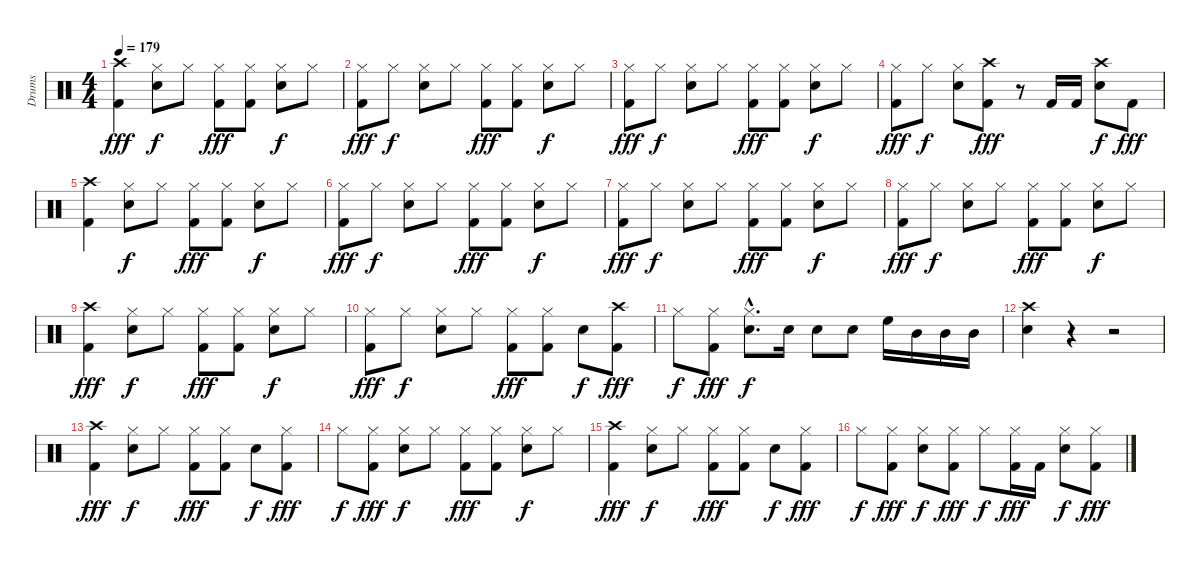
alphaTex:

\track ("Drums" "Drums") {instrument percussion}
\staff {score}
\articulation defaults
\ts (4 4)
\tempo 179
\clef neutral
\ks c
("Crash high (hit)" "Kick (hit) 2").4{dy fff} ("Hi-Hat (closed)" "Electric Snare (hit)").8{dy f} "Hi-Hat (closed)".8 ("Hi-Hat (closed)" "Kick (hit) 2").8{dy fff} ("Hi-Hat (closed)" "Kick (hit) 2").8 ("Hi-Hat (closed)" "Electric Snare (hit)").8{dy f} "Hi-Hat (closed)".8 |
("Hi-Hat (closed)" "Kick (hit) 2").8{dy fff} "Hi-Hat (closed)".8{dy f} ("Hi-Hat (closed)" "Electric Snare (hit)").8 "Hi-Hat (closed)".8 ("Hi-Hat (closed)" "Kick (hit) 2").8{dy fff} ("Hi-Hat (closed)" "Kick (hit) 2").8 ("Hi-Hat (closed)" "Electric Snare (hit)").8{dy f} "Hi-Hat (closed)".8 |
("Hi-Hat (closed)" "Kick (hit) 2").8{dy fff} "Hi-Hat (closed)".8{dy f} ("Hi-Hat (closed)" "Electric Snare (hit)").8 "Hi-Hat (closed)".8 ("Hi-Hat (closed)" "Kick (hit) 2").8{dy fff} ("Hi-Hat (closed)" "Kick (hit) 2").8 ("Hi-Hat (closed)" "Electric Snare (hit)").8{dy f} "Hi-Hat (closed)".8 |
("Hi-Hat (closed)" "Kick (hit) 2").8{dy fff} "Hi-Hat (closed)".8{dy f} ("Hi-Hat (closed)" "Electric Snare (hit)").8 ("Crash high (hit)" "Kick (hit) 2").8{dy fff} r.8 "Kick (hit) 2".16 "Kick (hit) 2".16 ("Crash high (hit)" "Electric Snare (hit)").8{dy f} "Kick (hit) 2".8{dy fff} |
("Crash high (hit)" "Kick (hit) 2").4 ("Hi-Hat (closed)" "Electric Snare (hit)").8{dy f} "Hi-Hat (closed)".8 ("Hi-Hat (closed)" "Kick (hit) 2").8{dy fff} ("Hi-Hat (closed)" "Kick (hit) 2").8 ("Hi-Hat (closed)" "Electric Snare (hit)").8{dy f} "Hi-Hat (closed)".8 |
("Hi-Hat (closed)" "Kick (hit) 2").8{dy fff} "Hi-Hat (closed)".8{dy f} ("Hi-Hat (closed)" "Electric Snare (hit)").8 "Hi-Hat (closed)".8 ("Hi-Hat (closed)" "Kick (hit) 2").8{dy fff} ("Hi-Hat (closed)" "Kick (hit) 2").8 ("Hi-Hat (closed)" "Electric Snare (hit)").8{dy f} "Hi-Hat (closed)".8 |
("Hi-Hat (closed)" "Kick (hit) 2").8{dy fff} "Hi-Hat (closed)".8{dy f} ("Hi-Hat (closed)" "Electric Snare (hit)").8 "Hi-Hat (closed)".8 ("Hi-Hat (closed)" "Kick (hit) 2").8{dy fff} ("Hi-Hat (closed)" "Kick (hit) 2").8 ("Hi-Hat (closed)" "Electric Snare (hit)").8{dy f} "Hi-Hat (closed)".8 |
("Hi-Hat (closed)" "Kick (hit) 2").8{dy fff} "Hi-Hat (closed)".8{dy f} ("Hi-Hat (closed)" "Electric Snare (hit)").8 "Hi-Hat (closed)".8 ("Hi-Hat (closed)" "Kick (hit) 2").8{dy fff} ("Hi-Hat (closed)" "Kick (hit) 2").8 ("Hi-Hat (closed)" "Electric Snare (hit)").8{dy f} "Hi-Hat (closed)".8 |
("Crash high (hit)" "Kick (hit) 2").4{dy fff} ("Hi-Hat (closed)" "Electric Snare (hit)").8{dy f} "Hi-Hat (closed)".8 ("Hi-Hat (closed)" "Kick (hit) 2").8{dy fff} ("Hi-Hat (closed)" "Kick (hit) 2").8 ("Hi-Hat (closed)" "Electric Snare (hit)").8{dy f} "Hi-Hat (closed)".8 |
("Hi-Hat (closed)" "Kick (hit) 2").8{dy fff} "Hi-Hat (closed)".8{dy f} ("Hi-Hat (closed)" "Electric Snare (hit)").8 "Hi-Hat (closed)".8 ("Hi-Hat (closed)" "Kick (hit) 2").8{dy fff} ("Hi-Hat (closed)" "Kick (hit) 2").8 "Electric Snare (hit)".8{dy f} ("Crash high (hit)" "Kick (hit) 2").8{dy fff} |
"Hi-Hat (closed)".8{dy f} ("Hi-Hat (closed)" "Kick (hit) 2").8{dy fff} ("Hi-Hat (closed)"{hac} "Electric Snare (hit)"{hac}).8{d dy f} "Electric Snare (hit)".16 "Electric Snare (hit)".8 "Electric Snare (hit)".8 "High Floor Tom (hit)".16 "Mid Tom (hit)".16 "Mid Tom (hit)".16 "Mid Tom (hit)".16 |
("Crash high (hit)" "Electric Snare (hit)").4 r.4 r.2 |
("Crash high (hit)" "Kick (hit) 2").4{dy fff} ("Hi-Hat (closed)" "Electric Snare (hit)").8{dy f} "Hi-Hat (closed)".8 ("Hi-Hat (closed)" "Kick (hit) 2").8{dy fff} ("Hi-Hat (closed)" "Kick (hit) 2").8 "Electric Snare (hit)".8{dy f} ("Hi-Hat (closed)" "Kick (hit) 2").8{dy fff} |
"Hi-Hat (closed)".8{dy f} ("Hi-Hat (closed)" "Kick (hit) 2").8{dy fff} ("Hi-Hat (closed)" "Electric Snare (hit)").8{dy f} "Hi-Hat (closed)".8 ("Hi-Hat (closed)" "Kick (hit) 2").8{dy fff} ("Hi-Hat (closed)" "Kick (hit) 2").8 ("Hi-Hat (closed)" "Electric Snare (hit)").8{dy f} "Hi-Hat (closed)".8 |
("Crash high (hit)" "Kick (hit) 2").4{dy fff} ("Hi-Hat (closed)" "Electric Snare (hit)").8{dy f} "Hi-Hat (closed)".8 ("Hi-Hat (closed)" "Kick (hit) 2").8{dy fff} ("Hi-Hat (closed)" "Kick (hit) 2").8 "Electric Snare (hit)".8{dy f} ("Hi-Hat (closed)" "Kick (hit) 2").8{dy fff} |
"Hi-Hat (closed)".8{dy f} ("Hi-Hat (closed)" "Kick (hit) 2").8{dy fff} ("Hi-Hat (closed)" "Electric Snare (hit)").8{dy f} ("Hi-Hat (closed)" "Kick (hit) 2").8{dy fff} "Hi-Hat (closed)".8{dy f} ("Hi-Hat (closed)" "Kick (hit) 2").16{dy fff} "Kick (hit) 2".16 ("Hi-Hat (closed)" "Electric Snare (hit)").8{dy f} ("Hi-Hat (closed)" "Kick (hit) 2").8{dy fff}
